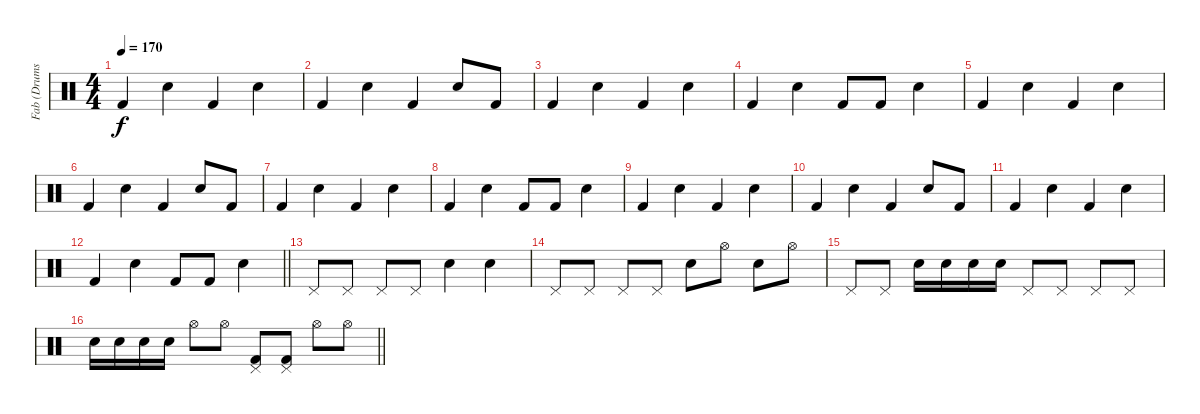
\track ("Fab (Drums)" "Fab (Drums") {instrument percussion}
\staff {score}
\articulation defaults
\ts (4 4)
\tempo 170
\clef neutral
\ks c "Kick (hit) 2".4{dy f} "Electric Snare (hit)".4 "Kick (hit) 2".4 "Electric Snare (hit)".4
|
"Kick (hit) 2".4 "Electric Snare (hit)".4 "Kick (hit) 2".4 "Electric Snare (hit)".8 "Kick (hit) 2".8 |
"Kick (hit) 2".4 "Electric Snare (hit)".4 "Kick (hit) 2".4 "Electric Snare (hit)".4 |
"Kick (hit) 2".4 "Electric Snare (hit)".4 "Kick (hit) 2".8 "Kick (hit) 2".8 "Electric Snare (hit)".4 |
"Kick (hit) 2".4 "Electric Snare (hit)".4 "Kick (hit) 2".4 "Electric Snare (hit)".4 |
"Kick (hit) 2".4 "Electric Snare (hit)".4 "Kick (hit) 2".4 "Electric Snare (hit)".8 "Kick (hit) 2".8 |
"Kick (hit) 2".4 "Electric Snare (hit)".4 "Kick (hit) 2".4 "Electric Snare (hit)".4 |
"Kick (hit) 2".4 "Electric Snare (hit)".4 "Kick (hit) 2".8 "Kick (hit) 2".8 "Electric Snare (hit)".4 |
"Kick (hit) 2".4 "Electric Snare (hit)".4 "Kick (hit) 2".4 "Electric Snare (hit)".4 |
"Kick (hit) 2".4 "Electric Snare (hit)".4 "Kick (hit) 2".4 "Electric Snare (hit)".8 "Kick (hit) 2".8 |
"Kick (hit) 2".4 "Electric Snare (hit)".4 "Kick (hit) 2".4 "Electric Snare (hit)".4 |
\barLineRight lightlight "Kick (hit) 2".4 "Electric Snare (hit)".4 "Kick (hit) 2".8 "Kick (hit) 2".8 "Electric Snare (hit)".4
|
"Pedal Hi-Hat (hit)".8 "Pedal Hi-Hat (hit)".8 "Pedal Hi-Hat (hit)".8 "Pedal Hi-Hat (hit)".8 "Electric Snare (hit)".4 "Electric Snare (hit)".4 |
"Pedal Hi-Hat (hit)".8 "Pedal Hi-Hat (hit)".8 "Pedal Hi-Hat (hit)".8 "Pedal Hi-Hat (hit)".8 "Electric Snare (hit)".8 "Hi-Hat (open)".8 "Electric Snare (hit)".8 "Hi-Hat (open)".8 |
"Pedal Hi-Hat (hit)".8 "Pedal Hi-Hat (hit)".8 "Electric Snare (hit)".16 "Electric Snare (hit)".16 "Electric Snare (hit)".16 "Electric Snare (hit)".16 "Pedal Hi-Hat (hit)".8 "Pedal Hi-Hat (hit)".8 "Pedal Hi-Hat (hit)".8 "Pedal Hi-Hat (hit)".8 |
\barLineRight lightlight "Electric Snare (hit)".16 "Electric Snare (hit)".16 "Electric Snare (hit)".16 "Electric Snare (hit)".16 "Hi-Hat (open)".8 "Hi-Hat (open)".8
("Pedal Hi-Hat (hit)" "Kick (hit) 2").8 ("Pedal Hi-Hat (hit)" "Kick (hit) 2").8 "Hi-Hat (open)".8 "Hi-Hat (open)".8
